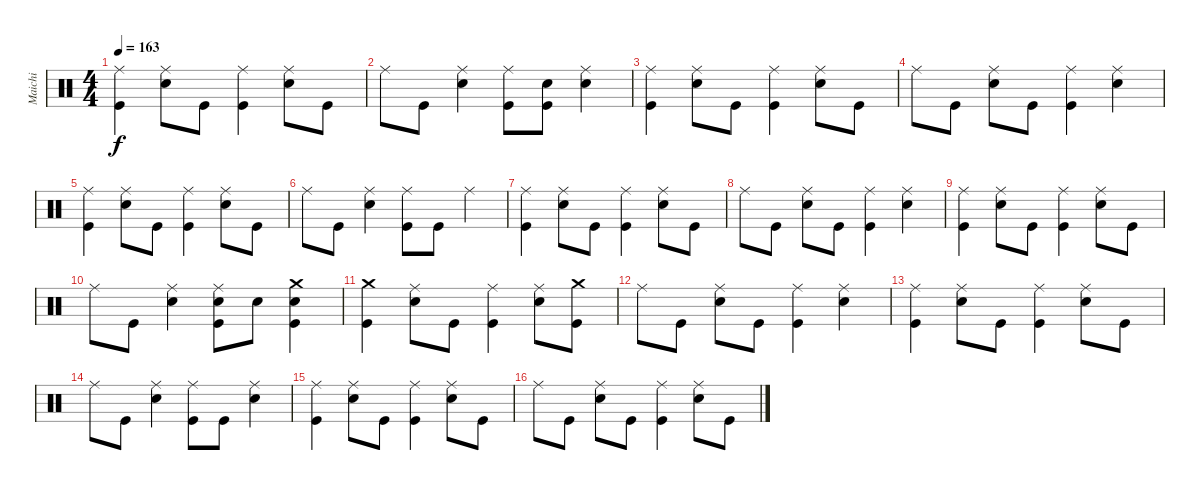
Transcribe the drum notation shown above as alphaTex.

\track ("Maichi" "Maichi") {instrument percussion}
\staff {score}
\articulation defaults
\ts (4 4)
\tempo 163
\clef neutral
\ks c
("Ride (middle)" "Kick (hit)").4{dy f} ("Electric Snare (hit)" "Ride (middle)").8 "Kick (hit)".8 ("Ride (middle)" "Kick (hit)").4 ("Ride (middle)" "Electric Snare (hit)").8 "Kick (hit)".8 |
"Ride (middle)".8 "Kick (hit)".8 ("Electric Snare (hit)" "Ride (middle)").4 ("Kick (hit)" "Ride (middle)").8 ("Kick (hit)" "Electric Snare (hit)").8 ("Electric Snare (hit)" "Ride (middle)").4 |
("Kick (hit)" "Ride (middle)").4 ("Electric Snare (hit)" "Ride (middle)").8 "Kick (hit)".8 ("Ride (middle)" "Kick (hit)").4 ("Electric Snare (hit)" "Ride (middle)").8 "Kick (hit)".8 |
"Ride (middle)".8 "Kick (hit)".8 ("Electric Snare (hit)" "Ride (middle)").8 "Kick (hit)".8 ("Ride (middle)" "Kick (hit)").4 ("Ride (middle)" "Electric Snare (hit)").4 |
("Ride (middle)" "Kick (hit)").4 ("Electric Snare (hit)" "Ride (middle)").8 "Kick (hit)".8 ("Kick (hit)" "Ride (middle)").4 ("Ride (middle)" "Electric Snare (hit)").8 "Kick (hit)".8 |
"Ride (middle)".8 "Kick (hit)".8 ("Ride (middle)" "Electric Snare (hit)").4 ("Ride (middle)" "Kick (hit)").8 "Kick (hit)".8 "Ride (middle)".4 |
("Ride (middle)" "Kick (hit)").4 ("Ride (middle)" "Electric Snare (hit)").8 "Kick (hit)".8 ("Kick (hit)" "Ride (middle)").4 ("Electric Snare (hit)" "Ride (middle)").8 "Kick (hit)".8 |
"Ride (middle)".8 "Kick (hit)".8 ("Ride (middle)" "Electric Snare (hit)").8 "Kick (hit)".8 ("Kick (hit)" "Ride (middle)").4 ("Electric Snare (hit)" "Ride (middle)").4 |
("Kick (hit)" "Ride (middle)").4 ("Electric Snare (hit)" "Ride (middle)").8 "Kick (hit)".8 ("Ride (middle)" "Kick (hit)").4 ("Electric Snare (hit)" "Ride (middle)").8 "Kick (hit)".8 |
"Ride (middle)".8 "Kick (hit)".8 ("Ride (middle)" "Electric Snare (hit)").4 ("Electric Snare (hit)" "Kick (hit)" "Ride (middle)").8 "Electric Snare (hit)".8 ("Kick (hit)" "Electric Snare (hit)" "Crash medium (hit)").4 |
("Crash medium (hit)" "Kick (hit)").4 ("Ride (middle)" "Electric Snare (hit)").8 "Kick (hit)".8 ("Kick (hit)" "Ride (middle)").4 ("Electric Snare (hit)" "Ride (middle)").8 ("Kick (hit)" "Crash medium (hit)").8 |
"Ride (middle)".8 "Kick (hit)".8 ("Electric Snare (hit)" "Ride (middle)").8 "Kick (hit)".8 ("Kick (hit)" "Ride (middle)").4 ("Ride (middle)" "Electric Snare (hit)").4 |
("Ride (middle)" "Kick (hit)").4 ("Ride (middle)" "Electric Snare (hit)").8 "Kick (hit)".8 ("Kick (hit)" "Ride (middle)").4 ("Electric Snare (hit)" "Ride (middle)").8 "Kick (hit)".8 |
"Ride (middle)".8 "Kick (hit)".8 ("Ride (middle)" "Electric Snare (hit)").4 ("Kick (hit)" "Ride (middle)").8 "Kick (hit)".8 ("Electric Snare (hit)" "Ride (middle)").4 |
("Ride (middle)" "Kick (hit)").4 ("Ride (middle)" "Electric Snare (hit)").8 "Kick (hit)".8 ("Ride (middle)" "Kick (hit)").4 ("Ride (middle)" "Electric Snare (hit)").8 "Kick (hit)".8 |
"Ride (middle)".8 "Kick (hit)".8 ("Ride (middle)" "Electric Snare (hit)").8 "Kick (hit)".8 ("Kick (hit)" "Ride (middle)").4 ("Electric Snare (hit)" "Ride (middle)").8 "Kick (hit)".8
